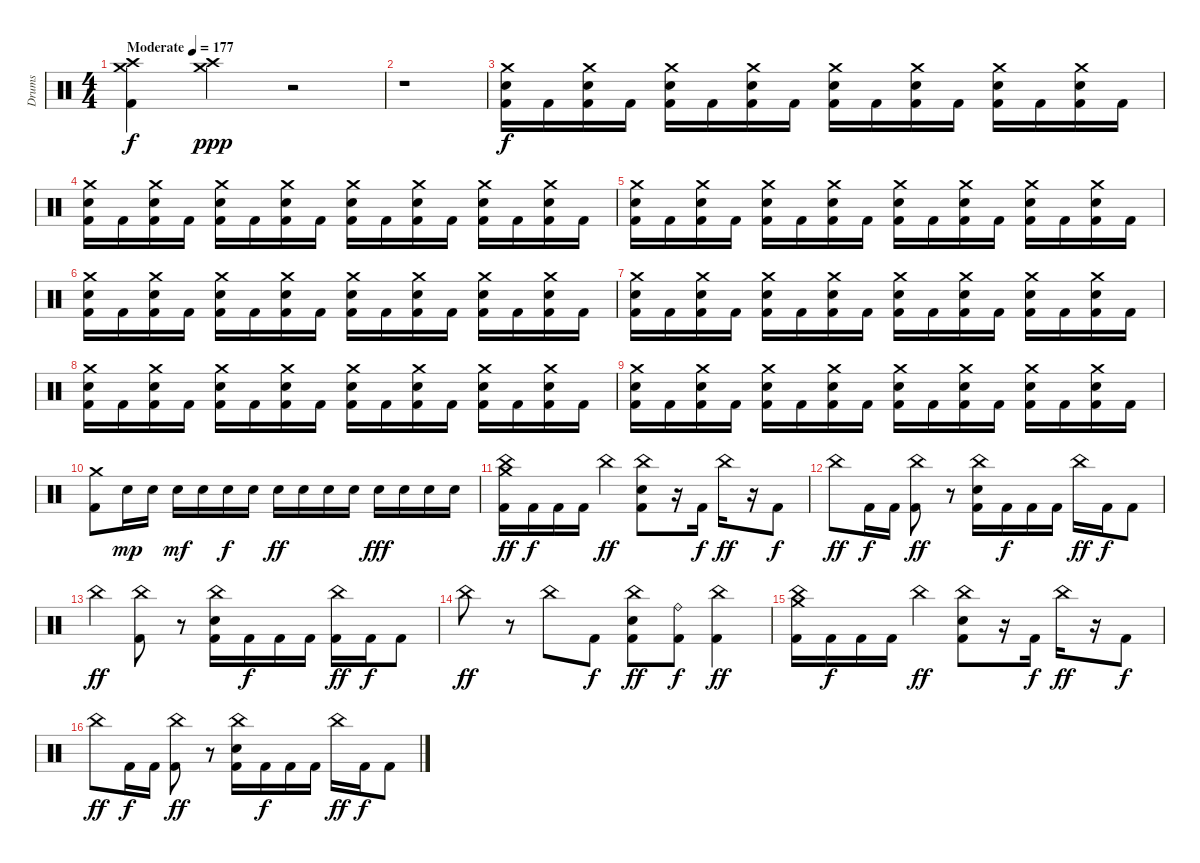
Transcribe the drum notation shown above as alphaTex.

\track ("Drums" "Drums") {instrument percussion}
\staff {score}
\articulation defaults
\ts (4 4)
\tempo (177 "Moderate")
\clef neutral
\ks c
("Crash medium (hit)" "Crash high (hit)" "Kick (hit) 2").4{dy f} ("Crash high (hit)" "Crash medium (hit)").4{dy ppp} r.2 |
r.1 |
("Crash medium (hit)" "Electric Snare (hit)" "Kick (hit) 2").16{dy f} "Kick (hit) 2".16 ("Crash medium (hit)" "Electric Snare (hit)" "Kick (hit) 2").16 "Kick (hit) 2".16 ("Crash medium (hit)" "Electric Snare (hit)" "Kick (hit) 2").16 "Kick (hit) 2".16 ("Crash medium (hit)" "Electric Snare (hit)" "Kick (hit) 2").16 "Kick (hit) 2".16 ("Crash medium (hit)" "Electric Snare (hit)" "Kick (hit) 2").16 "Kick (hit) 2".16 ("Crash medium (hit)" "Electric Snare (hit)" "Kick (hit) 2").16 "Kick (hit) 2".16 ("Crash medium (hit)" "Electric Snare (hit)" "Kick (hit) 2").16 "Kick (hit) 2".16 ("Crash medium (hit)" "Electric Snare (hit)" "Kick (hit) 2").16 "Kick (hit) 2".16 |
("Crash medium (hit)" "Electric Snare (hit)" "Kick (hit) 2").16 "Kick (hit) 2".16 ("Crash medium (hit)" "Electric Snare (hit)" "Kick (hit) 2").16 "Kick (hit) 2".16 ("Crash medium (hit)" "Electric Snare (hit)" "Kick (hit) 2").16 "Kick (hit) 2".16 ("Crash medium (hit)" "Electric Snare (hit)" "Kick (hit) 2").16 "Kick (hit) 2".16 ("Crash medium (hit)" "Electric Snare (hit)" "Kick (hit) 2").16 "Kick (hit) 2".16 ("Crash medium (hit)" "Electric Snare (hit)" "Kick (hit) 2").16 "Kick (hit) 2".16 ("Crash medium (hit)" "Electric Snare (hit)" "Kick (hit) 2").16 "Kick (hit) 2".16 ("Crash medium (hit)" "Electric Snare (hit)" "Kick (hit) 2").16 "Kick (hit) 2".16 |
("Crash medium (hit)" "Electric Snare (hit)" "Kick (hit) 2").16 "Kick (hit) 2".16 ("Crash medium (hit)" "Electric Snare (hit)" "Kick (hit) 2").16 "Kick (hit) 2".16 ("Crash medium (hit)" "Electric Snare (hit)" "Kick (hit) 2").16 "Kick (hit) 2".16 ("Crash medium (hit)" "Electric Snare (hit)" "Kick (hit) 2").16 "Kick (hit) 2".16 ("Crash medium (hit)" "Electric Snare (hit)" "Kick (hit) 2").16 "Kick (hit) 2".16 ("Crash medium (hit)" "Electric Snare (hit)" "Kick (hit) 2").16 "Kick (hit) 2".16 ("Crash medium (hit)" "Electric Snare (hit)" "Kick (hit) 2").16 "Kick (hit) 2".16 ("Crash medium (hit)" "Electric Snare (hit)" "Kick (hit) 2").16 "Kick (hit) 2".16 |
("Crash medium (hit)" "Electric Snare (hit)" "Kick (hit) 2").16 "Kick (hit) 2".16 ("Crash medium (hit)" "Electric Snare (hit)" "Kick (hit) 2").16 "Kick (hit) 2".16 ("Crash medium (hit)" "Electric Snare (hit)" "Kick (hit) 2").16 "Kick (hit) 2".16 ("Crash medium (hit)" "Electric Snare (hit)" "Kick (hit) 2").16 "Kick (hit) 2".16 ("Crash medium (hit)" "Electric Snare (hit)" "Kick (hit) 2").16 "Kick (hit) 2".16 ("Crash medium (hit)" "Electric Snare (hit)" "Kick (hit) 2").16 "Kick (hit) 2".16 ("Crash medium (hit)" "Electric Snare (hit)" "Kick (hit) 2").16 "Kick (hit) 2".16 ("Crash medium (hit)" "Electric Snare (hit)" "Kick (hit) 2").16 "Kick (hit) 2".16 |
("Crash medium (hit)" "Electric Snare (hit)" "Kick (hit) 2").16 "Kick (hit) 2".16 ("Crash medium (hit)" "Electric Snare (hit)" "Kick (hit) 2").16 "Kick (hit) 2".16 ("Crash medium (hit)" "Electric Snare (hit)" "Kick (hit) 2").16 "Kick (hit) 2".16 ("Crash medium (hit)" "Electric Snare (hit)" "Kick (hit) 2").16 "Kick (hit) 2".16 ("Crash medium (hit)" "Electric Snare (hit)" "Kick (hit) 2").16 "Kick (hit) 2".16 ("Crash medium (hit)" "Electric Snare (hit)" "Kick (hit) 2").16 "Kick (hit) 2".16 ("Crash medium (hit)" "Electric Snare (hit)" "Kick (hit) 2").16 "Kick (hit) 2".16 ("Crash medium (hit)" "Electric Snare (hit)" "Kick (hit) 2").16 "Kick (hit) 2".16 |
("Crash medium (hit)" "Electric Snare (hit)" "Kick (hit) 2").16 "Kick (hit) 2".16 ("Crash medium (hit)" "Electric Snare (hit)" "Kick (hit) 2").16 "Kick (hit) 2".16 ("Crash medium (hit)" "Electric Snare (hit)" "Kick (hit) 2").16 "Kick (hit) 2".16 ("Crash medium (hit)" "Electric Snare (hit)" "Kick (hit) 2").16 "Kick (hit) 2".16 ("Crash medium (hit)" "Electric Snare (hit)" "Kick (hit) 2").16 "Kick (hit) 2".16 ("Crash medium (hit)" "Electric Snare (hit)" "Kick (hit) 2").16 "Kick (hit) 2".16 ("Crash medium (hit)" "Electric Snare (hit)" "Kick (hit) 2").16 "Kick (hit) 2".16 ("Crash medium (hit)" "Electric Snare (hit)" "Kick (hit) 2").16 "Kick (hit) 2".16 |
("Crash medium (hit)" "Electric Snare (hit)" "Kick (hit) 2").16 "Kick (hit) 2".16 ("Crash medium (hit)" "Electric Snare (hit)" "Kick (hit) 2").16 "Kick (hit) 2".16 ("Crash medium (hit)" "Electric Snare (hit)" "Kick (hit) 2").16 "Kick (hit) 2".16 ("Crash medium (hit)" "Electric Snare (hit)" "Kick (hit) 2").16 "Kick (hit) 2".16 ("Crash medium (hit)" "Electric Snare (hit)" "Kick (hit) 2").16 "Kick (hit) 2".16 ("Crash medium (hit)" "Electric Snare (hit)" "Kick (hit) 2").16 "Kick (hit) 2".16 ("Crash medium (hit)" "Electric Snare (hit)" "Kick (hit) 2").16 "Kick (hit) 2".16 ("Crash medium (hit)" "Electric Snare (hit)" "Kick (hit) 2").16 "Kick (hit) 2".16 |
("Crash medium (hit)" "Kick (hit) 2").8 "Electric Snare (hit)".16{dy mp} "Electric Snare (hit)".16 "Electric Snare (hit)".16{dy mf} "Electric Snare (hit)".16 "Electric Snare (hit)".16{dy f} "Electric Snare (hit)".16 "Electric Snare (hit)".16{dy ff} "Electric Snare (hit)".16 "Electric Snare (hit)".16 "Electric Snare (hit)".16 "Electric Snare (hit)".16{dy fff} "Electric Snare (hit)".16 "Electric Snare (hit)".16 "Electric Snare (hit)".16 |
("China (hit)" "Crash medium (hit)" "Kick (hit) 2").16{dy ff} "Kick (hit) 2".16{dy f} "Kick (hit) 2".16 "Kick (hit) 2".16 "China (hit)".4{dy ff} ("China (hit)" "Electric Snare (hit)" "Kick (hit) 2").8 r.16 "Kick (hit) 2".16{dy f} "China (hit)".16{dy ff} r.16 "Kick (hit) 2".8{dy f} |
"China (hit)".8{dy ff} "Kick (hit) 2".16{dy f} "Kick (hit) 2".16 ("China (hit)" "Kick (hit) 2").8{dy ff} r.8 ("China (hit)" "Electric Snare (hit)" "Kick (hit) 2").16 "Kick (hit) 2".16{dy f} "Kick (hit) 2".16 "Kick (hit) 2".16 "China (hit)".16{dy ff} "Kick (hit) 2".16{dy f} "Kick (hit) 2".8 |
"China (hit)".4{dy ff} ("China (hit)" "Kick (hit) 2").8 r.8 ("China (hit)" "Electric Snare (hit)" "Kick (hit) 2").16 "Kick (hit) 2".16{dy f} "Kick (hit) 2".16 "Kick (hit) 2".16 ("China (hit)" "Kick (hit) 2").16{dy ff} "Kick (hit) 2".16{dy f} "Kick (hit) 2".8 |
"China (hit)".8{dy ff} r.8 "China (hit)".8 "Kick (hit) 2".8{dy f} ("China (hit)" "Electric Snare (hit)" "Kick (hit) 2").8{dy ff} ("Ride (bell)" "Kick (hit) 2").8{dy f} ("China (hit)" "Kick (hit) 2").4{dy ff} |
("China (hit)" "Crash medium (hit)" "Kick (hit) 2").16 "Kick (hit) 2".16{dy f} "Kick (hit) 2".16 "Kick (hit) 2".16 "China (hit)".4{dy ff} ("China (hit)" "Electric Snare (hit)" "Kick (hit) 2").8 r.16 "Kick (hit) 2".16{dy f} "China (hit)".16{dy ff} r.16 "Kick (hit) 2".8{dy f} |
"China (hit)".8{dy ff} "Kick (hit) 2".16{dy f} "Kick (hit) 2".16 ("China (hit)" "Kick (hit) 2").8{dy ff} r.8 ("China (hit)" "Electric Snare (hit)" "Kick (hit) 2").16 "Kick (hit) 2".16{dy f} "Kick (hit) 2".16 "Kick (hit) 2".16 "China (hit)".16{dy ff} "Kick (hit) 2".16{dy f} "Kick (hit) 2".8
